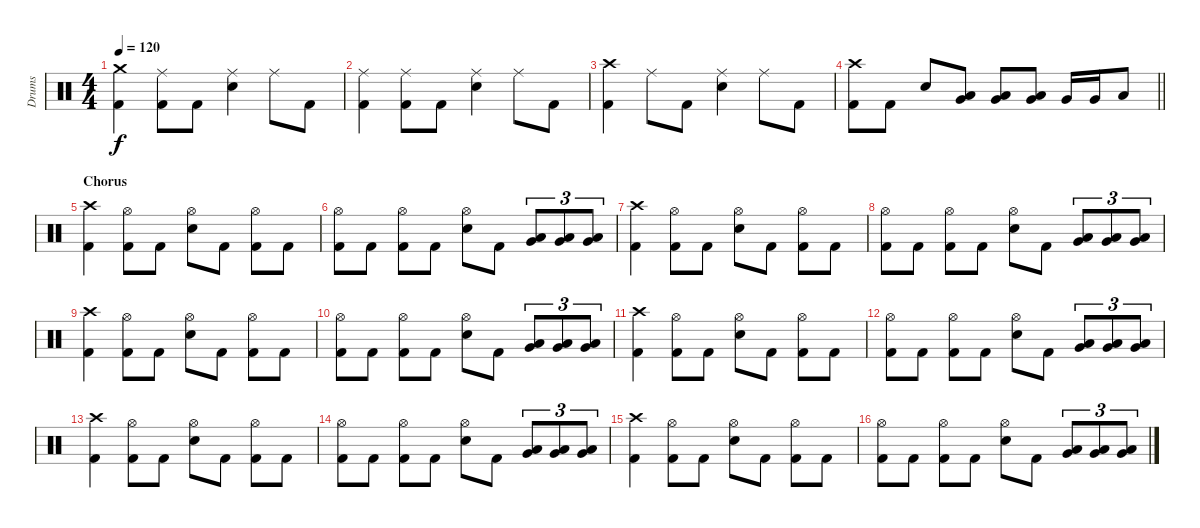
\track ("Drums" "Drums") {instrument percussion}
\staff {score}
\articulation defaults
\ts (4 4)
\tempo 120
\clef neutral
\ks c
("Crash medium (hit)" "Kick (hit) 2").4{dy f} ("Ride (middle)" "Kick (hit) 2").8 "Kick (hit) 2".8 ("Ride (middle)" "Electric Snare (hit)").4 "Ride (middle)".8 "Kick (hit) 2".8 |
("Ride (middle)" "Kick (hit) 2").4 ("Ride (middle)" "Kick (hit) 2").8 "Kick (hit) 2".8 ("Ride (middle)" "Electric Snare (hit)").4 "Ride (middle)".8 "Kick (hit) 2".8 |
("Crash high (hit)" "Kick (hit) 2").4 "Ride (middle)".8 "Kick (hit) 2".8 ("Ride (middle)" "Electric Snare (hit)").4 "Ride (middle)".8 "Kick (hit) 2".8 |
\barLineRight lightlight
("Crash high (hit)" "Kick (hit) 2").8 "Kick (hit) 2".8 "Electric Snare (hit)".8 ("Low Tom (hit)" "Very Low Tom (hit)").8 ("Very Low Tom (hit)" "Low Floor Tom (hit)").8 ("Very Low Tom (hit)" "Low Floor Tom (hit)").8 "Very Low Tom (hit)".16 "Very Low Tom (hit)".16 "Low Tom (hit)".8 |
\section ("" "Chorus")
("Crash high (hit)" "Kick (hit) 2").4 ("Hi-Hat (open)" "Kick (hit) 2").8 "Kick (hit) 2".8 ("Hi-Hat (open)" "Electric Snare (hit)").8 "Kick (hit) 2".8 ("Hi-Hat (open)" "Kick (hit) 2").8 "Kick (hit) 2".8 |
("Hi-Hat (open)" "Kick (hit) 2").8 "Kick (hit) 2".8 ("Hi-Hat (open)" "Kick (hit) 2").8 "Kick (hit) 2".8 ("Hi-Hat (open)" "Electric Snare (hit)").8 "Kick (hit) 2".8 ("Low Tom (hit)" "Very Low Tom (hit)").8{tu (3 2)} ("Low Tom (hit)" "Very Low Tom (hit)").8{tu (3 2)} ("Low Tom (hit)" "Very Low Tom (hit)").8{tu (3 2)} |
("Crash high (hit)" "Kick (hit) 2").4 ("Hi-Hat (open)" "Kick (hit) 2").8 "Kick (hit) 2".8 ("Hi-Hat (open)" "Electric Snare (hit)").8 "Kick (hit) 2".8 ("Hi-Hat (open)" "Kick (hit) 2").8 "Kick (hit) 2".8 |
("Hi-Hat (open)" "Kick (hit) 2").8 "Kick (hit) 2".8 ("Hi-Hat (open)" "Kick (hit) 2").8 "Kick (hit) 2".8 ("Hi-Hat (open)" "Electric Snare (hit)").8 "Kick (hit) 2".8 ("Low Tom (hit)" "Very Low Tom (hit)").8{tu (3 2)} ("Low Tom (hit)" "Very Low Tom (hit)").8{tu (3 2)} ("Low Tom (hit)" "Very Low Tom (hit)").8{tu (3 2)} |
("Crash high (hit)" "Kick (hit) 2").4 ("Hi-Hat (open)" "Kick (hit) 2").8 "Kick (hit) 2".8 ("Hi-Hat (open)" "Electric Snare (hit)").8 "Kick (hit) 2".8 ("Hi-Hat (open)" "Kick (hit) 2").8 "Kick (hit) 2".8 |
("Hi-Hat (open)" "Kick (hit) 2").8 "Kick (hit) 2".8 ("Hi-Hat (open)" "Kick (hit) 2").8 "Kick (hit) 2".8 ("Hi-Hat (open)" "Electric Snare (hit)").8 "Kick (hit) 2".8 ("Low Tom (hit)" "Very Low Tom (hit)").8{tu (3 2)} ("Low Tom (hit)" "Very Low Tom (hit)").8{tu (3 2)} ("Low Tom (hit)" "Very Low Tom (hit)").8{tu (3 2)} |
("Crash high (hit)" "Kick (hit) 2").4 ("Hi-Hat (open)" "Kick (hit) 2").8 "Kick (hit) 2".8 ("Hi-Hat (open)" "Electric Snare (hit)").8 "Kick (hit) 2".8 ("Hi-Hat (open)" "Kick (hit) 2").8 "Kick (hit) 2".8 |
("Hi-Hat (open)" "Kick (hit) 2").8 "Kick (hit) 2".8 ("Hi-Hat (open)" "Kick (hit) 2").8 "Kick (hit) 2".8 ("Hi-Hat (open)" "Electric Snare (hit)").8 "Kick (hit) 2".8 ("Low Tom (hit)" "Very Low Tom (hit)").8{tu (3 2)} ("Low Tom (hit)" "Very Low Tom (hit)").8{tu (3 2)} ("Low Tom (hit)" "Very Low Tom (hit)").8{tu (3 2)} |
("Crash high (hit)" "Kick (hit) 2").4 ("Hi-Hat (open)" "Kick (hit) 2").8 "Kick (hit) 2".8 ("Hi-Hat (open)" "Electric Snare (hit)").8 "Kick (hit) 2".8 ("Hi-Hat (open)" "Kick (hit) 2").8 "Kick (hit) 2".8 |
("Hi-Hat (open)" "Kick (hit) 2").8 "Kick (hit) 2".8 ("Hi-Hat (open)" "Kick (hit) 2").8 "Kick (hit) 2".8 ("Hi-Hat (open)" "Electric Snare (hit)").8 "Kick (hit) 2".8 ("Low Tom (hit)" "Very Low Tom (hit)").8{tu (3 2)} ("Low Tom (hit)" "Very Low Tom (hit)").8{tu (3 2)} ("Low Tom (hit)" "Very Low Tom (hit)").8{tu (3 2)} |
("Crash high (hit)" "Kick (hit) 2").4 ("Hi-Hat (open)" "Kick (hit) 2").8 "Kick (hit) 2".8 ("Hi-Hat (open)" "Electric Snare (hit)").8 "Kick (hit) 2".8 ("Hi-Hat (open)" "Kick (hit) 2").8 "Kick (hit) 2".8 |
("Hi-Hat (open)" "Kick (hit) 2").8 "Kick (hit) 2".8 ("Hi-Hat (open)" "Kick (hit) 2").8 "Kick (hit) 2".8 ("Hi-Hat (open)" "Electric Snare (hit)").8 "Kick (hit) 2".8 ("Low Tom (hit)" "Very Low Tom (hit)").8{tu (3 2)} ("Low Tom (hit)" "Very Low Tom (hit)").8{tu (3 2)} ("Low Tom (hit)" "Very Low Tom (hit)").8{tu (3 2)}
